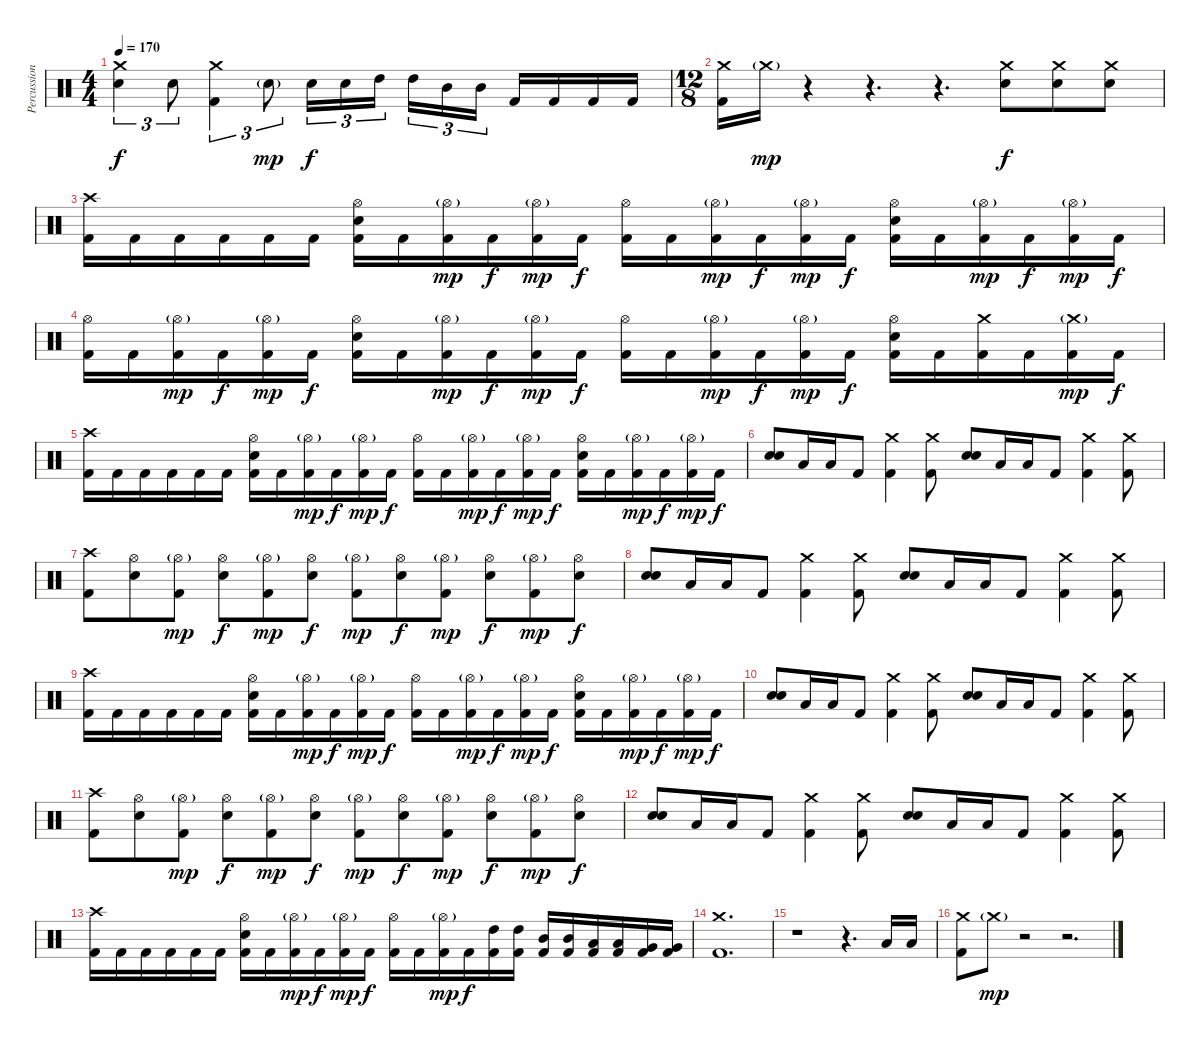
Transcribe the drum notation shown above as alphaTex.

\track ("Percussion" "Percussion") {instrument percussion}
\staff {score}
\articulation defaults
\ts (4 4)
\tempo 170
\clef neutral
\ks c
("Crash medium (hit)" "Electric Snare (hit)").4{tu (3 2) dy f} "Electric Snare (hit)".8{tu (3 2)} ("Crash medium (hit)" "Kick (hit) 2").4{tu (3 2)} "Electric Snare (hit)"{g}.8{tu (3 2) dy mp} "Electric Snare (hit)".16{tu (3 2) dy f} "Electric Snare (hit)".16{tu (3 2)} "High Tom (hit)".16{tu (3 2) beam splitsecondary} "High Tom (hit)".16{tu (3 2)} "Mid Tom (hit)".16{tu (3 2)} "Mid Tom (hit)".16{tu (3 2)} "Kick (hit) 2".16 "Kick (hit) 2".16 "Kick (hit) 2".16 "Kick (hit) 2".16 |
\ts (12 8)
("Crash medium (hit)" "Kick (hit) 2").16 "Crash medium (hit)"{g}.16{dy mp} r.4 r.4{d} r.4{d} ("Crash medium (hit)" "Electric Snare (hit)").8{dy f} ("Crash medium (hit)" "Electric Snare (hit)").8 ("Crash medium (hit)" "Electric Snare (hit)").8 |
("Crash high (hit)" "Kick (hit) 2").16 "Kick (hit) 2".16 "Kick (hit) 2".16 "Kick (hit) 2".16 "Kick (hit) 2".16 "Kick (hit) 2".16 ("Hi-Hat (open)" "Electric Snare (hit)" "Kick (hit) 2").16 "Kick (hit) 2".16 ("Hi-Hat (open)"{g} "Kick (hit) 2").16{dy mp} "Kick (hit) 2".16{dy f} ("Hi-Hat (open)"{g} "Kick (hit) 2").16{dy mp} "Kick (hit) 2".16{dy f} ("Hi-Hat (open)" "Kick (hit) 2").16 "Kick (hit) 2".16 ("Hi-Hat (open)"{g} "Kick (hit) 2").16{dy mp} "Kick (hit) 2".16{dy f} ("Hi-Hat (open)"{g} "Kick (hit) 2").16{dy mp} "Kick (hit) 2".16{dy f} ("Hi-Hat (open)" "Electric Snare (hit)" "Kick (hit) 2").16 "Kick (hit) 2".16 ("Hi-Hat (open)"{g} "Kick (hit) 2").16{dy mp} "Kick (hit) 2".16{dy f} ("Hi-Hat (open)"{g} "Kick (hit) 2").16{dy mp} "Kick (hit) 2".16{dy f} |
("Hi-Hat (open)" "Kick (hit) 2").16 "Kick (hit) 2".16 ("Hi-Hat (open)"{g} "Kick (hit) 2").16{dy mp} "Kick (hit) 2".16{dy f} ("Hi-Hat (open)"{g} "Kick (hit) 2").16{dy mp} "Kick (hit) 2".16{dy f} ("Hi-Hat (open)" "Electric Snare (hit)" "Kick (hit) 2").16 "Kick (hit) 2".16 ("Hi-Hat (open)"{g} "Kick (hit) 2").16{dy mp} "Kick (hit) 2".16{dy f} ("Hi-Hat (open)"{g} "Kick (hit) 2").16{dy mp} "Kick (hit) 2".16{dy f} ("Hi-Hat (open)" "Kick (hit) 2").16 "Kick (hit) 2".16 ("Hi-Hat (open)"{g} "Kick (hit) 2").16{dy mp} "Kick (hit) 2".16{dy f} ("Hi-Hat (open)"{g} "Kick (hit) 2").16{dy mp} "Kick (hit) 2".16{dy f} ("Hi-Hat (open)" "Electric Snare (hit)" "Kick (hit) 2").16 "Kick (hit) 2".16 ("Crash medium (hit)" "Kick (hit) 2").16 "Kick (hit) 2".16 ("Crash medium (hit)"{g} "Kick (hit) 2").16{dy mp} "Kick (hit) 2".16{dy f} |
("Crash high (hit)" "Kick (hit) 2").16 "Kick (hit) 2".16 "Kick (hit) 2".16 "Kick (hit) 2".16 "Kick (hit) 2".16 "Kick (hit) 2".16 ("Hi-Hat (open)" "Electric Snare (hit)" "Kick (hit) 2").16 "Kick (hit) 2".16 ("Hi-Hat (open)"{g} "Kick (hit) 2").16{dy mp} "Kick (hit) 2".16{dy f} ("Hi-Hat (open)"{g} "Kick (hit) 2").16{dy mp} "Kick (hit) 2".16{dy f} ("Hi-Hat (open)" "Kick (hit) 2").16 "Kick (hit) 2".16 ("Hi-Hat (open)"{g} "Kick (hit) 2").16{dy mp} "Kick (hit) 2".16{dy f} ("Hi-Hat (open)"{g} "Kick (hit) 2").16{dy mp} "Kick (hit) 2".16{dy f} ("Hi-Hat (open)" "Electric Snare (hit)" "Kick (hit) 2").16 "Kick (hit) 2".16 ("Hi-Hat (open)"{g} "Kick (hit) 2").16{dy mp} "Kick (hit) 2".16{dy f} ("Hi-Hat (open)"{g} "Kick (hit) 2").16{dy mp} "Kick (hit) 2".16{dy f} |
("Electric Snare (hit)" "Electric Snare (hit)").8{bd 240} "Low Floor Tom (hit)".16 "Low Floor Tom (hit)".16 "Kick (hit) 2".8 ("Crash medium (hit)" "Kick (hit) 2").4 ("Crash medium (hit)" "Kick (hit) 2").8 ("Electric Snare (hit)" "Electric Snare (hit)").8{bd 240} "Low Floor Tom (hit)".16 "Low Floor Tom (hit)".16 "Kick (hit) 2".8 ("Crash medium (hit)" "Kick (hit) 2").4 ("Crash medium (hit)" "Kick (hit) 2").8 |
("Crash high (hit)" "Kick (hit) 2").8 ("Hi-Hat (open)" "Electric Snare (hit)").8 ("Hi-Hat (open)"{g} "Kick (hit) 2").8{dy mp} ("Hi-Hat (open)" "Electric Snare (hit)").8{dy f} ("Hi-Hat (open)"{g} "Kick (hit) 2").8{dy mp} ("Hi-Hat (open)" "Electric Snare (hit)").8{dy f} ("Hi-Hat (open)"{g} "Kick (hit) 2").8{dy mp} ("Hi-Hat (open)" "Electric Snare (hit)").8{dy f} ("Hi-Hat (open)"{g} "Kick (hit) 2").8{dy mp} ("Hi-Hat (open)" "Electric Snare (hit)").8{dy f} ("Hi-Hat (open)"{g} "Kick (hit) 2").8{dy mp} ("Hi-Hat (open)" "Electric Snare (hit)").8{dy f} |
("Electric Snare (hit)" "Electric Snare (hit)").8{bd 240} "Low Floor Tom (hit)".16 "Low Floor Tom (hit)".16 "Kick (hit) 2".8 ("Crash medium (hit)" "Kick (hit) 2").4 ("Crash medium (hit)" "Kick (hit) 2").8 ("Electric Snare (hit)" "Electric Snare (hit)").8{bd 240} "Low Floor Tom (hit)".16 "Low Floor Tom (hit)".16 "Kick (hit) 2".8 ("Crash medium (hit)" "Kick (hit) 2").4 ("Crash medium (hit)" "Kick (hit) 2").8 |
("Crash high (hit)" "Kick (hit) 2").16 "Kick (hit) 2".16 "Kick (hit) 2".16 "Kick (hit) 2".16 "Kick (hit) 2".16 "Kick (hit) 2".16 ("Hi-Hat (open)" "Electric Snare (hit)" "Kick (hit) 2").16 "Kick (hit) 2".16 ("Hi-Hat (open)"{g} "Kick (hit) 2").16{dy mp} "Kick (hit) 2".16{dy f} ("Hi-Hat (open)"{g} "Kick (hit) 2").16{dy mp} "Kick (hit) 2".16{dy f} ("Hi-Hat (open)" "Kick (hit) 2").16 "Kick (hit) 2".16 ("Hi-Hat (open)"{g} "Kick (hit) 2").16{dy mp} "Kick (hit) 2".16{dy f} ("Hi-Hat (open)"{g} "Kick (hit) 2").16{dy mp} "Kick (hit) 2".16{dy f} ("Hi-Hat (open)" "Electric Snare (hit)" "Kick (hit) 2").16 "Kick (hit) 2".16 ("Hi-Hat (open)"{g} "Kick (hit) 2").16{dy mp} "Kick (hit) 2".16{dy f} ("Hi-Hat (open)"{g} "Kick (hit) 2").16{dy mp} "Kick (hit) 2".16{dy f} |
("Electric Snare (hit)" "Electric Snare (hit)").8{bd 240} "Low Floor Tom (hit)".16 "Low Floor Tom (hit)".16 "Kick (hit) 2".8 ("Crash medium (hit)" "Kick (hit) 2").4 ("Crash medium (hit)" "Kick (hit) 2").8 ("Electric Snare (hit)" "Electric Snare (hit)").8{bd 240} "Low Floor Tom (hit)".16 "Low Floor Tom (hit)".16 "Kick (hit) 2".8 ("Crash medium (hit)" "Kick (hit) 2").4 ("Crash medium (hit)" "Kick (hit) 2").8 |
("Crash high (hit)" "Kick (hit) 2").8 ("Hi-Hat (open)" "Electric Snare (hit)").8 ("Hi-Hat (open)"{g} "Kick (hit) 2").8{dy mp} ("Hi-Hat (open)" "Electric Snare (hit)").8{dy f} ("Hi-Hat (open)"{g} "Kick (hit) 2").8{dy mp} ("Hi-Hat (open)" "Electric Snare (hit)").8{dy f} ("Hi-Hat (open)"{g} "Kick (hit) 2").8{dy mp} ("Hi-Hat (open)" "Electric Snare (hit)").8{dy f} ("Hi-Hat (open)"{g} "Kick (hit) 2").8{dy mp} ("Hi-Hat (open)" "Electric Snare (hit)").8{dy f} ("Hi-Hat (open)"{g} "Kick (hit) 2").8{dy mp} ("Hi-Hat (open)" "Electric Snare (hit)").8{dy f} |
("Electric Snare (hit)" "Electric Snare (hit)").8{bd 240} "Low Floor Tom (hit)".16 "Low Floor Tom (hit)".16 "Kick (hit) 2".8 ("Crash medium (hit)" "Kick (hit) 2").4 ("Crash medium (hit)" "Kick (hit) 2").8 ("Electric Snare (hit)" "Electric Snare (hit)").8{bd 240} "Low Floor Tom (hit)".16 "Low Floor Tom (hit)".16 "Kick (hit) 2".8 ("Crash medium (hit)" "Kick (hit) 2").4 ("Crash medium (hit)" "Kick (hit) 2").8 |
("Crash high (hit)" "Kick (hit) 2").16 "Kick (hit) 2".16 "Kick (hit) 2".16 "Kick (hit) 2".16 "Kick (hit) 2".16 "Kick (hit) 2".16 ("Hi-Hat (open)" "Electric Snare (hit)" "Kick (hit) 2").16 "Kick (hit) 2".16 ("Hi-Hat (open)"{g} "Kick (hit) 2").16{dy mp} "Kick (hit) 2".16{dy f} ("Hi-Hat (open)"{g} "Kick (hit) 2").16{dy mp} "Kick (hit) 2".16{dy f} ("Hi-Hat (open)" "Kick (hit) 2").16 "Kick (hit) 2".16 ("Hi-Hat (open)"{g} "Kick (hit) 2").16{dy mp} "Kick (hit) 2".16{dy f} ("High Tom (hit)" "Kick (hit) 2").16 ("High Tom (hit)" "Kick (hit) 2").16 ("Mid Tom (hit)" "Kick (hit) 2").16 ("Mid Tom (hit)" "Kick (hit) 2").16 ("Low Tom (hit)" "Kick (hit) 2").16 ("Low Tom (hit)" "Kick (hit) 2").16 ("Very Low Tom (hit)" "Kick (hit) 2").16 ("Very Low Tom (hit)" "Kick (hit) 2").16 |
("Crash medium (hit)" "Kick (hit) 2").1{d} |
r.1 r.4{d} "Low Floor Tom (hit)".16 "Low Floor Tom (hit)".16 |
("Crash medium (hit)" "Kick (hit) 2").8 "Crash medium (hit)"{g}.8{dy mp} r.2 r.2{d}
